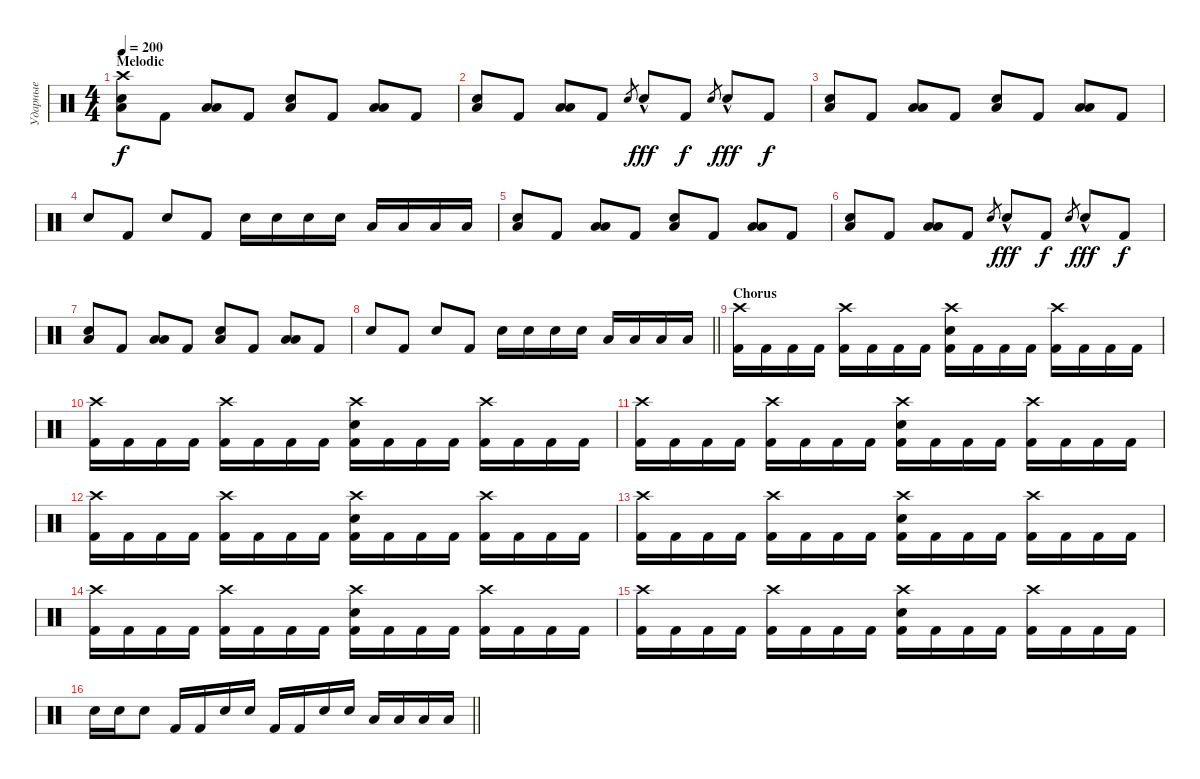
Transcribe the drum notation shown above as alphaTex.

\track ("Ударные" "Ударные") {instrument percussion}
\staff {score}
\articulation defaults
\ts (4 4)
\section ("" "Melodic")
\tempo 200
\clef neutral
\ks c
("Crash high (hit)" "Low Tom (hit)" "Electric Snare (hit)").8{dy f} "Kick (hit) 2".8 ("Low Floor Tom (hit)" "Low Tom (hit)").8 "Kick (hit) 2".8 ("Low Tom (hit)" "Electric Snare (hit)").8 "Kick (hit) 2".8 ("Low Floor Tom (hit)" "Low Floor Tom (hit)").8 "Kick (hit) 2".8 |
("Low Tom (hit)" "Electric Snare (hit)").8 "Kick (hit) 2".8 ("Low Floor Tom (hit)" "Low Tom (hit)").8 "Kick (hit) 2".8 "Electric Snare (hit)".8{gr} "Electric Snare (hit)"{hac}.8{dy fff} "Kick (hit) 2".8{dy f} "Electric Snare (hit)".8{gr} "Electric Snare (hit)"{hac}.8{dy fff} "Kick (hit) 2".8{dy f} |
("Low Tom (hit)" "Electric Snare (hit)").8 "Kick (hit) 2".8 ("Low Floor Tom (hit)" "Low Tom (hit)").8 "Kick (hit) 2".8 ("Low Tom (hit)" "Electric Snare (hit)").8 "Kick (hit) 2".8 ("Low Floor Tom (hit)" "Low Floor Tom (hit)").8 "Kick (hit) 2".8 |
"Electric Snare (hit)".8 "Kick (hit) 2".8 "Electric Snare (hit)".8 "Kick (hit) 2".8 "Electric Snare (hit)".16 "Electric Snare (hit)".16 "Electric Snare (hit)".16 "Electric Snare (hit)".16 "Low Tom (hit)".16 "Low Tom (hit)".16 "Low Floor Tom (hit)".16 "Low Floor Tom (hit)".16 |
("Low Tom (hit)" "Electric Snare (hit)").8 "Kick (hit) 2".8 ("Low Floor Tom (hit)" "Low Tom (hit)").8 "Kick (hit) 2".8 ("Low Tom (hit)" "Electric Snare (hit)").8 "Kick (hit) 2".8 ("Low Floor Tom (hit)" "Low Floor Tom (hit)").8 "Kick (hit) 2".8 |
("Low Tom (hit)" "Electric Snare (hit)").8 "Kick (hit) 2".8 ("Low Floor Tom (hit)" "Low Tom (hit)").8 "Kick (hit) 2".8 "Electric Snare (hit)".8{gr} "Electric Snare (hit)"{hac}.8{dy fff} "Kick (hit) 2".8{dy f} "Electric Snare (hit)".8{gr} "Electric Snare (hit)"{hac}.8{dy fff} "Kick (hit) 2".8{dy f} |
("Low Tom (hit)" "Electric Snare (hit)").8 "Kick (hit) 2".8 ("Low Floor Tom (hit)" "Low Tom (hit)").8 "Kick (hit) 2".8 ("Low Tom (hit)" "Electric Snare (hit)").8 "Kick (hit) 2".8 ("Low Floor Tom (hit)" "Low Floor Tom (hit)").8 "Kick (hit) 2".8 |
\barLineRight lightlight "Electric Snare (hit)".8 "Kick (hit) 2".8 "Electric Snare (hit)".8 "Kick (hit) 2".8 "Electric Snare (hit)".16 "Electric Snare (hit)".16 "Electric Snare (hit)".16 "Electric Snare (hit)".16 "Low Tom (hit)".16 "Low Tom (hit)".16 "Low Floor Tom (hit)".16 "Low Floor Tom (hit)".16
|
\section ("" "Chorus")
("Crash high (hit)" "Kick (hit) 2").16 "Kick (hit) 2".16 "Kick (hit) 2".16 "Kick (hit) 2".16 ("Crash high (hit)" "Kick (hit) 2").16 "Kick (hit) 2".16 "Kick (hit) 2".16 "Kick (hit) 2".16 ("Crash high (hit)" "Electric Snare (hit)" "Kick (hit) 2").16 "Kick (hit) 2".16 "Kick (hit) 2".16 "Kick (hit) 2".16 ("Crash high (hit)" "Kick (hit) 2").16 "Kick (hit) 2".16 "Kick (hit) 2".16 "Kick (hit) 2".16 |
("Crash high (hit)" "Kick (hit) 2").16 "Kick (hit) 2".16 "Kick (hit) 2".16 "Kick (hit) 2".16 ("Crash high (hit)" "Kick (hit) 2").16 "Kick (hit) 2".16 "Kick (hit) 2".16 "Kick (hit) 2".16 ("Crash high (hit)" "Electric Snare (hit)" "Kick (hit) 2").16 "Kick (hit) 2".16 "Kick (hit) 2".16 "Kick (hit) 2".16 ("Crash high (hit)" "Kick (hit) 2").16 "Kick (hit) 2".16 "Kick (hit) 2".16 "Kick (hit) 2".16 |
("Crash high (hit)" "Kick (hit) 2").16 "Kick (hit) 2".16 "Kick (hit) 2".16 "Kick (hit) 2".16 ("Crash high (hit)" "Kick (hit) 2").16 "Kick (hit) 2".16 "Kick (hit) 2".16 "Kick (hit) 2".16 ("Crash high (hit)" "Electric Snare (hit)" "Kick (hit) 2").16 "Kick (hit) 2".16 "Kick (hit) 2".16 "Kick (hit) 2".16 ("Crash high (hit)" "Kick (hit) 2").16 "Kick (hit) 2".16 "Kick (hit) 2".16 "Kick (hit) 2".16 |
("Crash high (hit)" "Kick (hit) 2").16 "Kick (hit) 2".16 "Kick (hit) 2".16 "Kick (hit) 2".16 ("Crash high (hit)" "Kick (hit) 2").16 "Kick (hit) 2".16 "Kick (hit) 2".16 "Kick (hit) 2".16 ("Crash high (hit)" "Electric Snare (hit)" "Kick (hit) 2").16 "Kick (hit) 2".16 "Kick (hit) 2".16 "Kick (hit) 2".16 ("Crash high (hit)" "Kick (hit) 2").16 "Kick (hit) 2".16 "Kick (hit) 2".16 "Kick (hit) 2".16 |
("Crash high (hit)" "Kick (hit) 2").16 "Kick (hit) 2".16 "Kick (hit) 2".16 "Kick (hit) 2".16 ("Crash high (hit)" "Kick (hit) 2").16 "Kick (hit) 2".16 "Kick (hit) 2".16 "Kick (hit) 2".16 ("Crash high (hit)" "Electric Snare (hit)" "Kick (hit) 2").16 "Kick (hit) 2".16 "Kick (hit) 2".16 "Kick (hit) 2".16 ("Crash high (hit)" "Kick (hit) 2").16 "Kick (hit) 2".16 "Kick (hit) 2".16 "Kick (hit) 2".16 |
("Crash high (hit)" "Kick (hit) 2").16 "Kick (hit) 2".16 "Kick (hit) 2".16 "Kick (hit) 2".16 ("Crash high (hit)" "Kick (hit) 2").16 "Kick (hit) 2".16 "Kick (hit) 2".16 "Kick (hit) 2".16 ("Crash high (hit)" "Electric Snare (hit)" "Kick (hit) 2").16 "Kick (hit) 2".16 "Kick (hit) 2".16 "Kick (hit) 2".16 ("Crash high (hit)" "Kick (hit) 2").16 "Kick (hit) 2".16 "Kick (hit) 2".16 "Kick (hit) 2".16 |
("Crash high (hit)" "Kick (hit) 2").16 "Kick (hit) 2".16 "Kick (hit) 2".16 "Kick (hit) 2".16 ("Crash high (hit)" "Kick (hit) 2").16 "Kick (hit) 2".16 "Kick (hit) 2".16 "Kick (hit) 2".16 ("Crash high (hit)" "Electric Snare (hit)" "Kick (hit) 2").16 "Kick (hit) 2".16 "Kick (hit) 2".16 "Kick (hit) 2".16 ("Crash high (hit)" "Kick (hit) 2").16 "Kick (hit) 2".16 "Kick (hit) 2".16 "Kick (hit) 2".16 |
\barLineRight lightlight "Electric Snare (hit)".16 "Electric Snare (hit)".16 "Electric Snare (hit)".8 "Kick (hit) 2".16 "Kick (hit) 2".16 "Electric Snare (hit)".16 "Electric Snare (hit)".16 "Kick (hit) 2".16 "Kick (hit) 2".16 "Electric Snare (hit)".16 "Electric Snare (hit)".16 "Low Tom (hit)".16 "Low Tom (hit)".16 "Low Floor Tom (hit)".16 "Low Floor Tom (hit)".16
